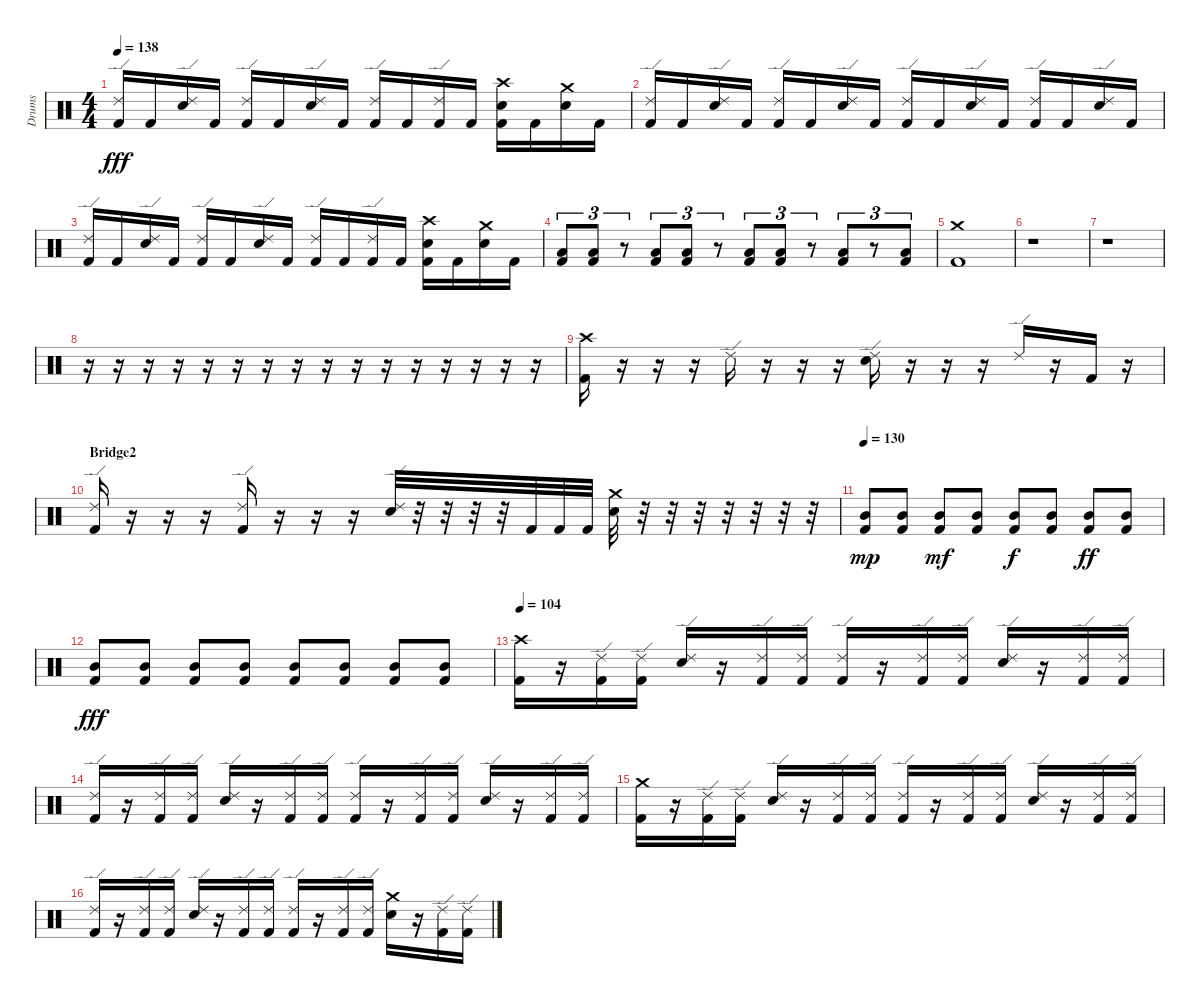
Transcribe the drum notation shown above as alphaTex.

\track ("Drums" "Drums") {instrument percussion}
\staff {score}
\articulation defaults
\ts (4 4)
\tempo 138
\clef neutral
\ks c
("Ride (edge) 2" "Kick (hit) 2").16{dy fff} "Kick (hit) 2".16 ("Ride (edge) 2" "Snare (hit) 2").16 "Kick (hit) 2".16 ("Ride (edge) 2" "Kick (hit) 2").16 "Kick (hit) 2".16 ("Ride (edge) 2" "Snare (hit) 2").16 "Kick (hit) 2".16 ("Ride (edge) 2" "Kick (hit) 2").16 "Kick (hit) 2".16 ("Ride (edge) 2" "Kick (hit) 2").16 "Kick (hit) 2".16 ("Crash high (hit)" "Snare (hit) 2" "Kick (hit) 2").16 "Kick (hit) 2".16 ("Crash medium (hit)" "Snare (hit) 2").16 "Kick (hit) 2".16 |
("Ride (edge) 2" "Kick (hit) 2").16 "Kick (hit) 2".16 ("Ride (edge) 2" "Snare (hit) 2").16 "Kick (hit) 2".16 ("Ride (edge) 2" "Kick (hit) 2").16 "Kick (hit) 2".16 ("Ride (edge) 2" "Snare (hit) 2").16 "Kick (hit) 2".16 ("Ride (edge) 2" "Kick (hit) 2").16 "Kick (hit) 2".16 ("Ride (edge) 2" "Snare (hit) 2").16 "Kick (hit) 2".16 ("Ride (edge) 2" "Kick (hit) 2").16 "Kick (hit) 2".16 ("Ride (edge) 2" "Snare (hit) 2").16 "Kick (hit) 2".16 |
("Ride (edge) 2" "Kick (hit) 2").16 "Kick (hit) 2".16 ("Ride (edge) 2" "Snare (hit) 2").16 "Kick (hit) 2".16 ("Ride (edge) 2" "Kick (hit) 2").16 "Kick (hit) 2".16 ("Ride (edge) 2" "Snare (hit) 2").16 "Kick (hit) 2".16 ("Ride (edge) 2" "Kick (hit) 2").16 "Kick (hit) 2".16 ("Ride (edge) 2" "Kick (hit) 2").16 "Kick (hit) 2".16 ("Crash high (hit)" "Snare (hit) 2" "Kick (hit) 2").16 "Kick (hit) 2".16 ("Crash medium (hit)" "Snare (hit) 2").16 "Kick (hit) 2".16 |
("Low Tom (hit)" "Kick (hit) 2").8{tu (3 2)} ("Low Tom (hit)" "Kick (hit) 2").8{tu (3 2)} r.8{tu (3 2)} ("Low Tom (hit)" "Kick (hit) 2").8{tu (3 2)} ("Low Tom (hit)" "Kick (hit) 2").8{tu (3 2)} r.8{tu (3 2)} ("Low Tom (hit)" "Kick (hit) 2").8{tu (3 2)} ("Low Tom (hit)" "Kick (hit) 2").8{tu (3 2)} r.8{tu (3 2)} ("Low Tom (hit)" "Kick (hit) 2").8{tu (3 2)} r.8{tu (3 2)} ("Low Tom (hit)" "Kick (hit) 2").8{tu (3 2)} |
("Crash medium (hit)" "Kick (hit) 2").1 |
r.1 |
r.1 |
r.16 r.16 r.16 r.16 r.16 r.16 r.16 r.16 r.16 r.16 r.16 r.16 r.16 r.16 r.16 r.16 |
("Crash high (hit)" "Kick (hit) 2").16 r.16 r.16 r.16 "Ride (edge) 2".16 r.16 r.16 r.16 ("Ride (edge) 2" "Snare (hit) 2").16 r.16 r.16 r.16 "Ride (edge) 2".16 r.16 "Kick (hit) 2".16 r.16 |
\section ("" "Bridge2")
("Ride (edge) 2" "Kick (hit) 2").16 r.16 r.16 r.16 ("Ride (edge) 2" "Kick (hit) 2").16 r.16 r.16 r.16 ("Ride (edge) 2" "Snare (hit) 2").32 r.32 r.32 r.32 r.32 "Kick (hit) 2".32 "Kick (hit) 2".32 "Kick (hit) 2".32 ("Crash medium (hit)" "Snare (hit) 2").32 r.32 r.32 r.32 r.32 r.32 r.32 r.32 |
\tempo 130
("Mid Tom (hit)" "Kick (hit) 2").8{dy mp} ("Mid Tom (hit)" "Kick (hit) 2").8 ("Mid Tom (hit)" "Kick (hit) 2").8{dy mf} ("Mid Tom (hit)" "Kick (hit) 2").8 ("Mid Tom (hit)" "Kick (hit) 2").8{dy f} ("Mid Tom (hit)" "Kick (hit) 2").8 ("Mid Tom (hit)" "Kick (hit) 2").8{dy ff} ("Mid Tom (hit)" "Kick (hit) 2").8 |
("Mid Tom (hit)" "Kick (hit) 2").8{dy fff} ("Mid Tom (hit)" "Kick (hit) 2").8 ("Mid Tom (hit)" "Kick (hit) 2").8 ("Mid Tom (hit)" "Kick (hit) 2").8 ("Mid Tom (hit)" "Kick (hit) 2").8 ("Mid Tom (hit)" "Kick (hit) 2").8 ("Mid Tom (hit)" "Kick (hit) 2").8 ("Mid Tom (hit)" "Kick (hit) 2").8 |
\tempo 104
("Crash high (hit)" "Kick (hit) 2").16 r.16 ("Ride (edge) 2" "Kick (hit) 2").16 ("Ride (edge) 2" "Kick (hit) 2").16 ("Ride (edge) 2" "Snare (hit) 2").16 r.16 ("Ride (edge) 2" "Kick (hit) 2").16 ("Ride (edge) 2" "Kick (hit) 2").16 ("Ride (edge) 2" "Kick (hit) 2").16 r.16 ("Ride (edge) 2" "Kick (hit) 2").16 ("Ride (edge) 2" "Kick (hit) 2").16 ("Ride (edge) 2" "Snare (hit) 2").16 r.16 ("Ride (edge) 2" "Kick (hit) 2").16 ("Ride (edge) 2" "Kick (hit) 2").16 |
("Ride (edge) 2" "Kick (hit) 2").16 r.16 ("Ride (edge) 2" "Kick (hit) 2").16 ("Ride (edge) 2" "Kick (hit) 2").16 ("Ride (edge) 2" "Snare (hit) 2").16 r.16 ("Ride (edge) 2" "Kick (hit) 2").16 ("Ride (edge) 2" "Kick (hit) 2").16 ("Ride (edge) 2" "Kick (hit) 2").16 r.16 ("Ride (edge) 2" "Kick (hit) 2").16 ("Ride (edge) 2" "Kick (hit) 2").16 ("Ride (edge) 2" "Snare (hit) 2").16 r.16 ("Ride (edge) 2" "Kick (hit) 2").16 ("Ride (edge) 2" "Kick (hit) 2").16 |
("Crash medium (hit)" "Kick (hit) 2").16 r.16 ("Ride (edge) 2" "Kick (hit) 2").16 ("Ride (edge) 2" "Kick (hit) 2").16 ("Ride (edge) 2" "Snare (hit) 2").16 r.16 ("Ride (edge) 2" "Kick (hit) 2").16 ("Ride (edge) 2" "Kick (hit) 2").16 ("Ride (edge) 2" "Kick (hit) 2").16 r.16 ("Ride (edge) 2" "Kick (hit) 2").16 ("Ride (edge) 2" "Kick (hit) 2").16 ("Ride (edge) 2" "Snare (hit) 2").16 r.16 ("Ride (edge) 2" "Kick (hit) 2").16 ("Ride (edge) 2" "Kick (hit) 2").16 |
("Ride (edge) 2" "Kick (hit) 2").16 r.16 ("Ride (edge) 2" "Kick (hit) 2").16 ("Ride (edge) 2" "Kick (hit) 2").16 ("Ride (edge) 2" "Snare (hit) 2").16 r.16 ("Ride (edge) 2" "Kick (hit) 2").16 ("Ride (edge) 2" "Kick (hit) 2").16 ("Ride (edge) 2" "Kick (hit) 2").16 r.16 ("Ride (edge) 2" "Kick (hit) 2").16 ("Ride (edge) 2" "Kick (hit) 2").16 ("Crash medium (hit)" "Snare (hit) 2").16 r.16 ("Ride (edge) 2" "Kick (hit) 2").16 ("Ride (edge) 2" "Kick (hit) 2").16
